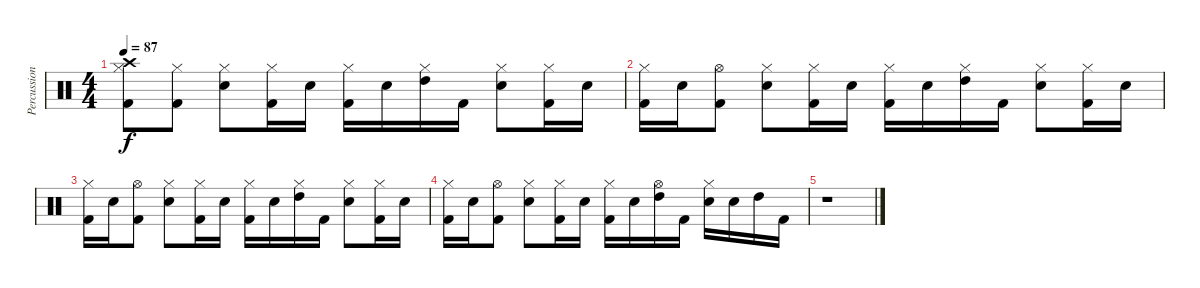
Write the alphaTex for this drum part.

\track ("Percussions" "Percussion") {instrument percussion}
\staff {score}
\articulation defaults
\ts (4 4)
\tempo 87
\clef neutral
\ks c
("Crash high (hit)" "Hi-Hat (closed)" "Kick (hit) 2").8{dy f} ("Hi-Hat (closed)" "Kick (hit) 2").8 ("Hi-Hat (closed)" "Electric Snare (hit)").8 ("Hi-Hat (closed)" "Kick (hit) 2").16 "Electric Snare (hit)".16 ("Hi-Hat (closed)" "Kick (hit) 2").16 "Electric Snare (hit)".16 ("Hi-Hat (closed)" "High Tom (hit)").16 "Kick (hit) 2".16 ("Hi-Hat (closed)" "Electric Snare (hit)").8 ("Hi-Hat (closed)" "Kick (hit) 2").16 "Electric Snare (hit)".16 |
("Hi-Hat (closed)" "Kick (hit) 2").16 "Electric Snare (hit)".16 ("Hi-Hat (open)" "Kick (hit) 2").8 ("Hi-Hat (closed)" "Electric Snare (hit)").8 ("Hi-Hat (closed)" "Kick (hit) 2").16 "Electric Snare (hit)".16 ("Hi-Hat (closed)" "Kick (hit) 2").16 "Electric Snare (hit)".16 ("Hi-Hat (closed)" "High Tom (hit)").16 "Kick (hit) 2".16 ("Hi-Hat (closed)" "Electric Snare (hit)").8 ("Hi-Hat (closed)" "Kick (hit) 2").16 "Electric Snare (hit)".16 |
("Hi-Hat (closed)" "Kick (hit) 2").16 "Electric Snare (hit)".16 ("Hi-Hat (open)" "Kick (hit) 2").8 ("Hi-Hat (closed)" "Electric Snare (hit)").8 ("Hi-Hat (closed)" "Kick (hit) 2").16 "Electric Snare (hit)".16 ("Hi-Hat (closed)" "Kick (hit) 2").16 "Electric Snare (hit)".16 ("Hi-Hat (closed)" "High Tom (hit)").16 "Kick (hit) 2".16 ("Hi-Hat (closed)" "Electric Snare (hit)").8 ("Hi-Hat (closed)" "Kick (hit) 2").16 "Electric Snare (hit)".16 |
("Hi-Hat (closed)" "Kick (hit) 2").16 "Electric Snare (hit)".16 ("Hi-Hat (open)" "Kick (hit) 2").8 ("Hi-Hat (closed)" "Electric Snare (hit)").8 ("Hi-Hat (closed)" "Kick (hit) 2").16 "Electric Snare (hit)".16 ("Hi-Hat (closed)" "Kick (hit) 2").16 "Electric Snare (hit)".16 ("Hi-Hat (open)" "High Tom (hit)").16 "Kick (hit) 2".16 ("Hi-Hat (closed)" "Electric Snare (hit)").16 "Electric Snare (hit)".16 "High Tom (hit)".16 "Kick (hit) 2".16 |
r.1
